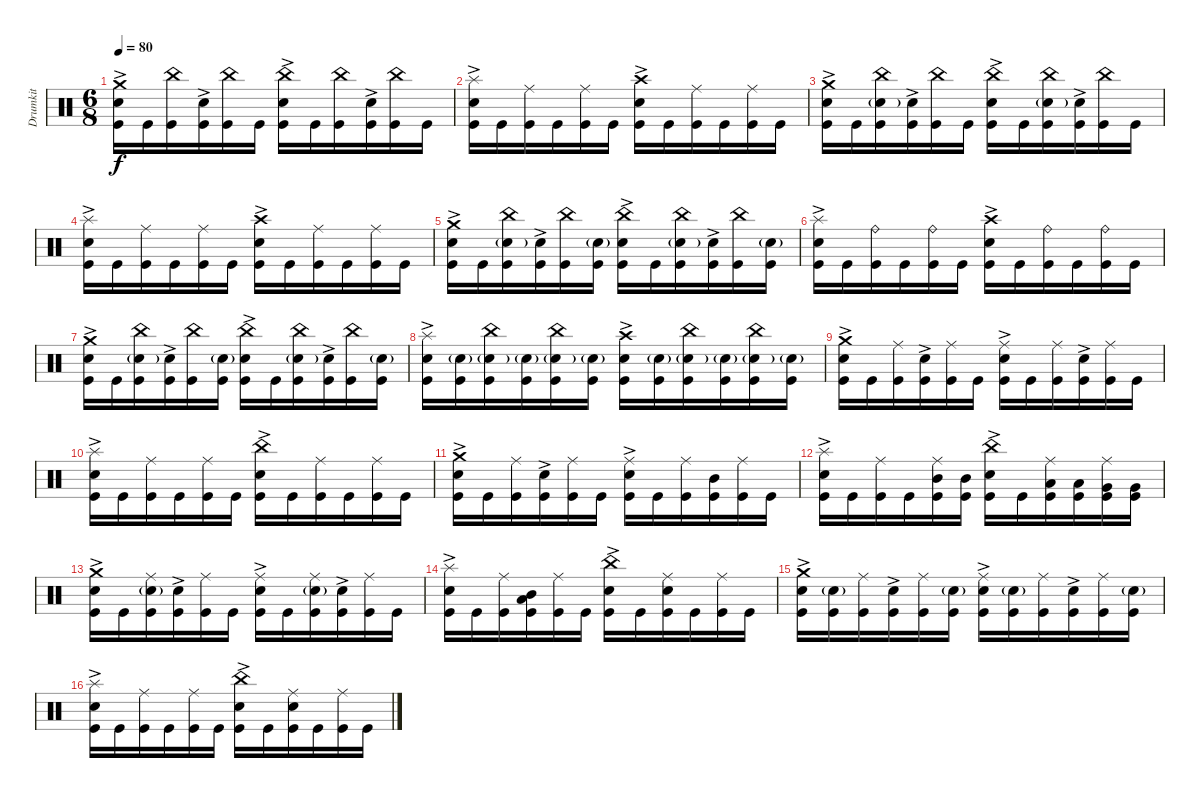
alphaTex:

\track ("Drumkit" "Drumkit") {instrument percussion}
\staff {score}
\articulation defaults
\ts (6 8)
\tempo 80
\clef neutral
\ks c
("Kick (hit)" "Snare (hit) 2"{ac} "Crash medium (hit)").16{dy f} "Kick (hit)".16 ("Kick (hit)" "China (hit)").16 ("Kick (hit)" "Snare (hit) 2"{ac}).16 ("Kick (hit)" "China (hit)").16 "Kick (hit)".16 ("Kick (hit)" "Snare (hit) 2"{ac} "China (hit)").16 "Kick (hit)".16 ("Kick (hit)" "China (hit)").16 ("Kick (hit)" "Snare (hit) 2"{ac}).16 ("Kick (hit)" "China (hit)").16 "Kick (hit)".16 |
("Kick (hit)" "Snare (hit) 2"{ac} "Splash (hit)").16 "Kick (hit)".16 ("Kick (hit)" "Ride (middle)").16 "Kick (hit)".16 ("Kick (hit)" "Ride (middle)").16 "Kick (hit)".16 ("Kick (hit)" "Snare (hit) 2"{ac} "Crash high (hit)").16 "Kick (hit)".16 ("Kick (hit)" "Ride (middle)").16 "Kick (hit)".16 ("Kick (hit)" "Ride (middle)").16 "Kick (hit)".16 |
("Kick (hit)" "Snare (hit) 2"{ac} "Crash medium (hit)").16 "Kick (hit)".16 ("Kick (hit)" "China (hit)" "Snare (hit) 2"{g}).16 ("Kick (hit)" "Snare (hit) 2"{ac}).16 ("Kick (hit)" "China (hit)").16 "Kick (hit)".16 ("Kick (hit)" "Snare (hit) 2"{ac} "China (hit)").16 "Kick (hit)".16 ("Kick (hit)" "China (hit)" "Snare (hit) 2"{g}).16 ("Kick (hit)" "Snare (hit) 2"{ac}).16 ("Kick (hit)" "China (hit)").16 "Kick (hit)".16 |
("Kick (hit)" "Snare (hit) 2"{ac} "Splash (hit)").16 "Kick (hit)".16 ("Kick (hit)" "Ride (middle)").16 "Kick (hit)".16 ("Kick (hit)" "Ride (middle)").16 "Kick (hit)".16 ("Kick (hit)" "Snare (hit) 2"{ac} "Crash high (hit)").16 "Kick (hit)".16 ("Kick (hit)" "Ride (middle)").16 "Kick (hit)".16 ("Kick (hit)" "Ride (middle)").16 "Kick (hit)".16 |
("Kick (hit)" "Snare (hit) 2"{ac} "Crash medium (hit)").16 "Kick (hit)".16 ("Kick (hit)" "China (hit)" "Snare (hit) 2"{g}).16 ("Kick (hit)" "Snare (hit) 2"{ac}).16 ("Kick (hit)" "China (hit)").16 ("Kick (hit)" "Snare (hit) 2"{g}).16 ("Kick (hit)" "Snare (hit) 2"{ac} "China (hit)").16 "Kick (hit)".16 ("Kick (hit)" "China (hit)" "Snare (hit) 2"{g}).16 ("Kick (hit)" "Snare (hit) 2"{ac}).16 ("Kick (hit)" "China (hit)").16 ("Kick (hit)" "Snare (hit) 2"{g}).16 |
("Kick (hit)" "Snare (hit) 2"{ac} "Splash (hit)").16 "Kick (hit)".16 ("Kick (hit)" "Ride (bell)").16 "Kick (hit)".16 ("Kick (hit)" "Ride (bell)").16 "Kick (hit)".16 ("Kick (hit)" "Snare (hit) 2"{ac} "Crash high (hit)").16 "Kick (hit)".16 ("Kick (hit)" "Ride (bell)").16 "Kick (hit)".16 ("Kick (hit)" "Ride (bell)").16 "Kick (hit)".16 |
("Kick (hit)" "Snare (hit) 2"{ac} "Crash medium (hit)").16 "Kick (hit)".16 ("Kick (hit)" "China (hit)" "Snare (hit) 2"{g}).16 ("Kick (hit)" "Snare (hit) 2"{ac}).16 ("Kick (hit)" "China (hit)").16 ("Kick (hit)" "Snare (hit) 2"{g}).16 ("Kick (hit)" "Snare (hit) 2"{ac} "China (hit)").16 "Kick (hit)".16 ("Kick (hit)" "China (hit)" "Snare (hit) 2"{g}).16 ("Kick (hit)" "Snare (hit) 2"{ac}).16 ("Kick (hit)" "China (hit)").16 ("Kick (hit)" "Snare (hit) 2"{g}).16 |
("Kick (hit)" "Snare (hit) 2"{ac} "Splash (hit)").16 ("Kick (hit)" "Snare (hit) 2"{g}).16 ("Kick (hit)" "China (hit)" "Snare (hit) 2"{g}).16 ("Kick (hit)" "Snare (hit) 2"{g}).16 ("Kick (hit)" "China (hit)" "Snare (hit) 2"{g}).16 ("Kick (hit)" "Snare (hit) 2"{g}).16 ("Kick (hit)" "Snare (hit) 2"{ac} "Crash high (hit)").16 ("Kick (hit)" "Snare (hit) 2"{g}).16 ("Kick (hit)" "China (hit)" "Snare (hit) 2"{g}).16 ("Kick (hit)" "Snare (hit) 2"{g}).16 ("Kick (hit)" "China (hit)" "Snare (hit) 2"{g}).16 ("Kick (hit)" "Snare (hit) 2"{g}).16 |
("Kick (hit)" "Snare (hit) 2"{ac} "Crash medium (hit)").16 "Kick (hit)".16 ("Kick (hit)" "Ride (middle)").16 ("Kick (hit)" "Snare (hit) 2"{ac}).16 ("Kick (hit)" "Ride (middle)").16 "Kick (hit)".16 ("Kick (hit)" "Snare (hit) 2"{ac} "Ride (middle)").16 "Kick (hit)".16 ("Kick (hit)" "Ride (middle)").16 ("Kick (hit)" "Snare (hit) 2"{ac}).16 ("Kick (hit)" "Ride (middle)").16 "Kick (hit)".16 |
("Kick (hit)" "Snare (hit) 2"{ac} "Splash (hit)").16 "Kick (hit)".16 ("Kick (hit)" "Ride (middle)").16 "Kick (hit)".16 ("Kick (hit)" "Ride (middle)").16 "Kick (hit)".16 ("Kick (hit)" "Snare (hit) 2"{ac} "China (hit)").16 "Kick (hit)".16 ("Kick (hit)" "Ride (middle)").16 "Kick (hit)".16 ("Kick (hit)" "Ride (middle)").16 "Kick (hit)".16 |
("Kick (hit)" "Snare (hit) 2"{ac} "Crash medium (hit)").16 "Kick (hit)".16 ("Kick (hit)" "Ride (middle)").16 ("Kick (hit)" "Snare (hit) 2"{ac}).16 ("Kick (hit)" "Ride (middle)").16 "Kick (hit)".16 ("Kick (hit)" "Snare (hit) 2"{ac} "Ride (middle)").16 "Kick (hit)".16 ("Kick (hit)" "Ride (middle)").16 ("Kick (hit)" "Mid Tom (hit)").16 ("Kick (hit)" "Ride (middle)").16 "Kick (hit)".16 |
("Kick (hit)" "Snare (hit) 2"{ac} "Splash (hit)").16 "Kick (hit)".16 ("Kick (hit)" "Ride (middle)").16 "Kick (hit)".16 ("Kick (hit)" "Ride (middle)" "Mid Tom (hit)").16 ("Kick (hit)" "Mid Tom (hit)").16 ("Kick (hit)" "Snare (hit) 2"{ac} "China (hit)").16 "Kick (hit)".16 ("Kick (hit)" "Ride (middle)" "Low Tom (hit)").16 ("Kick (hit)" "Low Tom (hit)").16 ("Kick (hit)" "Ride (middle)" "Very Low Tom (hit)").16 ("Kick (hit)" "Very Low Tom (hit)").16 |
("Kick (hit)" "Snare (hit) 2"{ac} "Crash medium (hit)").16 "Kick (hit)".16 ("Kick (hit)" "Ride (middle)" "Snare (hit) 2"{g}).16 ("Kick (hit)" "Snare (hit) 2"{ac}).16 ("Kick (hit)" "Ride (middle)").16 "Kick (hit)".16 ("Kick (hit)" "Snare (hit) 2"{ac} "Ride (middle)").16 "Kick (hit)".16 ("Kick (hit)" "Ride (middle)" "Snare (hit) 2"{g}).16 ("Kick (hit)" "Snare (hit) 2"{ac}).16 ("Kick (hit)" "Ride (middle)").16 "Kick (hit)".16 |
("Kick (hit)" "Snare (hit) 2"{ac} "Splash (hit)").16 "Kick (hit)".16 ("Kick (hit)" "Ride (middle)").16 ("Kick (hit)" "Mid Tom (hit)" "Low Tom (hit)").16 ("Kick (hit)" "Ride (middle)").16 "Kick (hit)".16 ("Kick (hit)" "Snare (hit) 2"{ac} "China (hit)").16 "Kick (hit)".16 ("Kick (hit)" "Ride (middle)" "Snare (hit) 2").16 "Kick (hit)".16 ("Kick (hit)" "Ride (middle)").16 "Kick (hit)".16 |
("Kick (hit)" "Snare (hit) 2"{ac} "Crash medium (hit)").16 ("Kick (hit)" "Snare (hit) 2"{g}).16 ("Kick (hit)" "Ride (middle)").16 ("Kick (hit)" "Snare (hit) 2"{ac}).16 ("Kick (hit)" "Ride (middle)").16 ("Kick (hit)" "Snare (hit) 2"{g}).16 ("Kick (hit)" "Snare (hit) 2"{ac} "Ride (middle)").16 ("Kick (hit)" "Snare (hit) 2"{g}).16 ("Kick (hit)" "Ride (middle)").16 ("Kick (hit)" "Snare (hit) 2"{ac}).16 ("Kick (hit)" "Ride (middle)").16 ("Kick (hit)" "Snare (hit) 2"{g}).16 |
("Kick (hit)" "Snare (hit) 2"{ac} "Splash (hit)").16 "Kick (hit)".16 ("Kick (hit)" "Ride (middle)").16 "Kick (hit)".16 ("Kick (hit)" "Ride (middle)").16 "Kick (hit)".16 ("Kick (hit)" "Snare (hit) 2"{ac} "China (hit)").16 "Kick (hit)".16 ("Kick (hit)" "Ride (middle)" "Snare (hit) 2").16 "Kick (hit)".16 ("Kick (hit)" "Ride (middle)").16 "Kick (hit)".16
